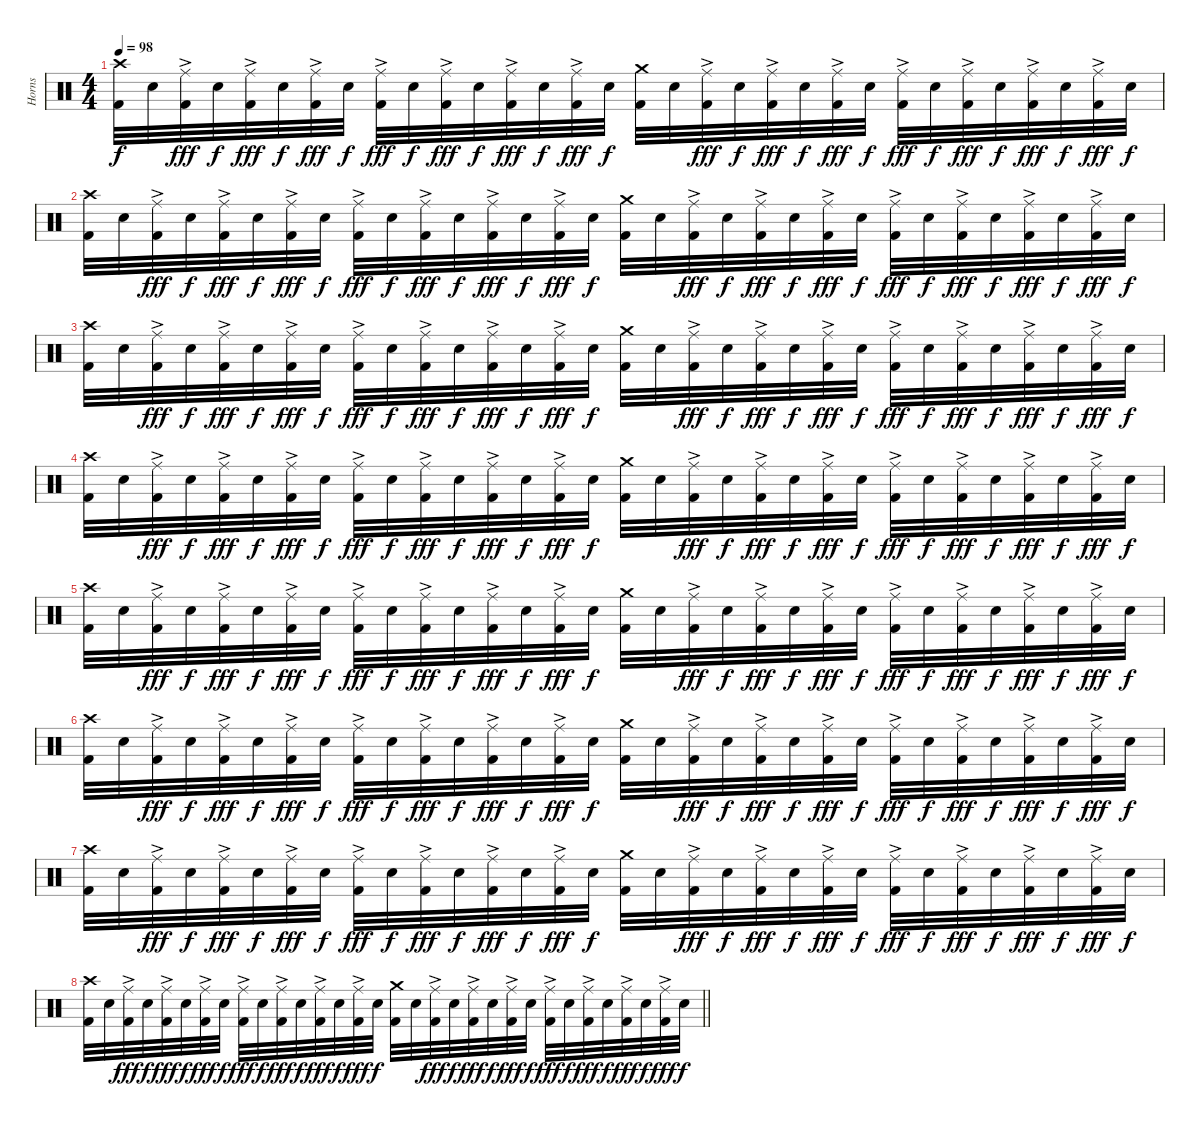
\track ("Horns" "Horns") {instrument percussion}
\staff {score}
\articulation defaults
\ts (4 4)
\tempo 98
\clef neutral
\ks c
("Crash high (hit)" "Kick (hit) 2").32{dy f} "Snare (hit) 2".32 ("Ride (middle)"{ac} "Kick (hit) 2").32{dy fff} "Snare (hit) 2".32{dy f} ("Ride (middle)"{ac} "Kick (hit) 2").32{dy fff} "Snare (hit) 2".32{dy f} ("Ride (middle)"{ac} "Kick (hit) 2").32{dy fff} "Snare (hit) 2".32{dy f} ("Ride (middle)"{ac} "Kick (hit) 2").32{dy fff} "Snare (hit) 2".32{dy f} ("Ride (middle)"{ac} "Kick (hit) 2").32{dy fff} "Snare (hit) 2".32{dy f} ("Ride (middle)"{ac} "Kick (hit) 2").32{dy fff} "Snare (hit) 2".32{dy f} ("Ride (middle)"{ac} "Kick (hit) 2").32{dy fff} "Snare (hit) 2".32{dy f} ("Crash medium (hit)" "Kick (hit) 2").32 "Snare (hit) 2".32 ("Ride (middle)"{ac} "Kick (hit) 2").32{dy fff} "Snare (hit) 2".32{dy f} ("Ride (middle)"{ac} "Kick (hit) 2").32{dy fff} "Snare (hit) 2".32{dy f} ("Ride (middle)"{ac} "Kick (hit) 2").32{dy fff} "Snare (hit) 2".32{dy f} ("Ride (middle)"{ac} "Kick (hit) 2").32{dy fff} "Snare (hit) 2".32{dy f} ("Ride (middle)"{ac} "Kick (hit) 2").32{dy fff} "Snare (hit) 2".32{dy f} ("Ride (middle)"{ac} "Kick (hit) 2").32{dy fff} "Snare (hit) 2".32{dy f} ("Ride (middle)"{ac} "Kick (hit) 2").32{dy fff} "Snare (hit) 2".32{dy f} |
("Crash high (hit)" "Kick (hit) 2").32 "Snare (hit) 2".32 ("Ride (middle)"{ac} "Kick (hit) 2").32{dy fff} "Snare (hit) 2".32{dy f} ("Ride (middle)"{ac} "Kick (hit) 2").32{dy fff} "Snare (hit) 2".32{dy f} ("Ride (middle)"{ac} "Kick (hit) 2").32{dy fff} "Snare (hit) 2".32{dy f} ("Ride (middle)"{ac} "Kick (hit) 2").32{dy fff} "Snare (hit) 2".32{dy f} ("Ride (middle)"{ac} "Kick (hit) 2").32{dy fff} "Snare (hit) 2".32{dy f} ("Ride (middle)"{ac} "Kick (hit) 2").32{dy fff} "Snare (hit) 2".32{dy f} ("Ride (middle)"{ac} "Kick (hit) 2").32{dy fff} "Snare (hit) 2".32{dy f} ("Crash medium (hit)" "Kick (hit) 2").32 "Snare (hit) 2".32 ("Ride (middle)"{ac} "Kick (hit) 2").32{dy fff} "Snare (hit) 2".32{dy f} ("Ride (middle)"{ac} "Kick (hit) 2").32{dy fff} "Snare (hit) 2".32{dy f} ("Ride (middle)"{ac} "Kick (hit) 2").32{dy fff} "Snare (hit) 2".32{dy f} ("Ride (middle)"{ac} "Kick (hit) 2").32{dy fff} "Snare (hit) 2".32{dy f} ("Ride (middle)"{ac} "Kick (hit) 2").32{dy fff} "Snare (hit) 2".32{dy f} ("Ride (middle)"{ac} "Kick (hit) 2").32{dy fff} "Snare (hit) 2".32{dy f} ("Ride (middle)"{ac} "Kick (hit) 2").32{dy fff} "Snare (hit) 2".32{dy f} |
("Crash high (hit)" "Kick (hit) 2").32 "Snare (hit) 2".32 ("Ride (middle)"{ac} "Kick (hit) 2").32{dy fff} "Snare (hit) 2".32{dy f} ("Ride (middle)"{ac} "Kick (hit) 2").32{dy fff} "Snare (hit) 2".32{dy f} ("Ride (middle)"{ac} "Kick (hit) 2").32{dy fff} "Snare (hit) 2".32{dy f} ("Ride (middle)"{ac} "Kick (hit) 2").32{dy fff} "Snare (hit) 2".32{dy f} ("Ride (middle)"{ac} "Kick (hit) 2").32{dy fff} "Snare (hit) 2".32{dy f} ("Ride (middle)"{ac} "Kick (hit) 2").32{dy fff} "Snare (hit) 2".32{dy f} ("Ride (middle)"{ac} "Kick (hit) 2").32{dy fff} "Snare (hit) 2".32{dy f} ("Crash medium (hit)" "Kick (hit) 2").32 "Snare (hit) 2".32 ("Ride (middle)"{ac} "Kick (hit) 2").32{dy fff} "Snare (hit) 2".32{dy f} ("Ride (middle)"{ac} "Kick (hit) 2").32{dy fff} "Snare (hit) 2".32{dy f} ("Ride (middle)"{ac} "Kick (hit) 2").32{dy fff} "Snare (hit) 2".32{dy f} ("Ride (middle)"{ac} "Kick (hit) 2").32{dy fff} "Snare (hit) 2".32{dy f} ("Ride (middle)"{ac} "Kick (hit) 2").32{dy fff} "Snare (hit) 2".32{dy f} ("Ride (middle)"{ac} "Kick (hit) 2").32{dy fff} "Snare (hit) 2".32{dy f} ("Ride (middle)"{ac} "Kick (hit) 2").32{dy fff} "Snare (hit) 2".32{dy f} |
("Crash high (hit)" "Kick (hit) 2").32 "Snare (hit) 2".32 ("Ride (middle)"{ac} "Kick (hit) 2").32{dy fff} "Snare (hit) 2".32{dy f} ("Ride (middle)"{ac} "Kick (hit) 2").32{dy fff} "Snare (hit) 2".32{dy f} ("Ride (middle)"{ac} "Kick (hit) 2").32{dy fff} "Snare (hit) 2".32{dy f} ("Ride (middle)"{ac} "Kick (hit) 2").32{dy fff} "Snare (hit) 2".32{dy f} ("Ride (middle)"{ac} "Kick (hit) 2").32{dy fff} "Snare (hit) 2".32{dy f} ("Ride (middle)"{ac} "Kick (hit) 2").32{dy fff} "Snare (hit) 2".32{dy f} ("Ride (middle)"{ac} "Kick (hit) 2").32{dy fff} "Snare (hit) 2".32{dy f} ("Crash medium (hit)" "Kick (hit) 2").32 "Snare (hit) 2".32 ("Ride (middle)"{ac} "Kick (hit) 2").32{dy fff} "Snare (hit) 2".32{dy f} ("Ride (middle)"{ac} "Kick (hit) 2").32{dy fff} "Snare (hit) 2".32{dy f} ("Ride (middle)"{ac} "Kick (hit) 2").32{dy fff} "Snare (hit) 2".32{dy f} ("Ride (middle)"{ac} "Kick (hit) 2").32{dy fff} "Snare (hit) 2".32{dy f} ("Ride (middle)"{ac} "Kick (hit) 2").32{dy fff} "Snare (hit) 2".32{dy f} ("Ride (middle)"{ac} "Kick (hit) 2").32{dy fff} "Snare (hit) 2".32{dy f} ("Ride (middle)"{ac} "Kick (hit) 2").32{dy fff} "Snare (hit) 2".32{dy f} |
("Crash high (hit)" "Kick (hit) 2").32 "Snare (hit) 2".32 ("Ride (middle)"{ac} "Kick (hit) 2").32{dy fff} "Snare (hit) 2".32{dy f} ("Ride (middle)"{ac} "Kick (hit) 2").32{dy fff} "Snare (hit) 2".32{dy f} ("Ride (middle)"{ac} "Kick (hit) 2").32{dy fff} "Snare (hit) 2".32{dy f} ("Ride (middle)"{ac} "Kick (hit) 2").32{dy fff} "Snare (hit) 2".32{dy f} ("Ride (middle)"{ac} "Kick (hit) 2").32{dy fff} "Snare (hit) 2".32{dy f} ("Ride (middle)"{ac} "Kick (hit) 2").32{dy fff} "Snare (hit) 2".32{dy f} ("Ride (middle)"{ac} "Kick (hit) 2").32{dy fff} "Snare (hit) 2".32{dy f} ("Crash medium (hit)" "Kick (hit) 2").32 "Snare (hit) 2".32 ("Ride (middle)"{ac} "Kick (hit) 2").32{dy fff} "Snare (hit) 2".32{dy f} ("Ride (middle)"{ac} "Kick (hit) 2").32{dy fff} "Snare (hit) 2".32{dy f} ("Ride (middle)"{ac} "Kick (hit) 2").32{dy fff} "Snare (hit) 2".32{dy f} ("Ride (middle)"{ac} "Kick (hit) 2").32{dy fff} "Snare (hit) 2".32{dy f} ("Ride (middle)"{ac} "Kick (hit) 2").32{dy fff} "Snare (hit) 2".32{dy f} ("Ride (middle)"{ac} "Kick (hit) 2").32{dy fff} "Snare (hit) 2".32{dy f} ("Ride (middle)"{ac} "Kick (hit) 2").32{dy fff} "Snare (hit) 2".32{dy f} |
("Crash high (hit)" "Kick (hit) 2").32 "Snare (hit) 2".32 ("Ride (middle)"{ac} "Kick (hit) 2").32{dy fff} "Snare (hit) 2".32{dy f} ("Ride (middle)"{ac} "Kick (hit) 2").32{dy fff} "Snare (hit) 2".32{dy f} ("Ride (middle)"{ac} "Kick (hit) 2").32{dy fff} "Snare (hit) 2".32{dy f} ("Ride (middle)"{ac} "Kick (hit) 2").32{dy fff} "Snare (hit) 2".32{dy f} ("Ride (middle)"{ac} "Kick (hit) 2").32{dy fff} "Snare (hit) 2".32{dy f} ("Ride (middle)"{ac} "Kick (hit) 2").32{dy fff} "Snare (hit) 2".32{dy f} ("Ride (middle)"{ac} "Kick (hit) 2").32{dy fff} "Snare (hit) 2".32{dy f} ("Crash medium (hit)" "Kick (hit) 2").32 "Snare (hit) 2".32 ("Ride (middle)"{ac} "Kick (hit) 2").32{dy fff} "Snare (hit) 2".32{dy f} ("Ride (middle)"{ac} "Kick (hit) 2").32{dy fff} "Snare (hit) 2".32{dy f} ("Ride (middle)"{ac} "Kick (hit) 2").32{dy fff} "Snare (hit) 2".32{dy f} ("Ride (middle)"{ac} "Kick (hit) 2").32{dy fff} "Snare (hit) 2".32{dy f} ("Ride (middle)"{ac} "Kick (hit) 2").32{dy fff} "Snare (hit) 2".32{dy f} ("Ride (middle)"{ac} "Kick (hit) 2").32{dy fff} "Snare (hit) 2".32{dy f} ("Ride (middle)"{ac} "Kick (hit) 2").32{dy fff} "Snare (hit) 2".32{dy f} |
("Crash high (hit)" "Kick (hit) 2").32 "Snare (hit) 2".32 ("Ride (middle)"{ac} "Kick (hit) 2").32{dy fff} "Snare (hit) 2".32{dy f} ("Ride (middle)"{ac} "Kick (hit) 2").32{dy fff} "Snare (hit) 2".32{dy f} ("Ride (middle)"{ac} "Kick (hit) 2").32{dy fff} "Snare (hit) 2".32{dy f} ("Ride (middle)"{ac} "Kick (hit) 2").32{dy fff} "Snare (hit) 2".32{dy f} ("Ride (middle)"{ac} "Kick (hit) 2").32{dy fff} "Snare (hit) 2".32{dy f} ("Ride (middle)"{ac} "Kick (hit) 2").32{dy fff} "Snare (hit) 2".32{dy f} ("Ride (middle)"{ac} "Kick (hit) 2").32{dy fff} "Snare (hit) 2".32{dy f} ("Crash medium (hit)" "Kick (hit) 2").32 "Snare (hit) 2".32 ("Ride (middle)"{ac} "Kick (hit) 2").32{dy fff} "Snare (hit) 2".32{dy f} ("Ride (middle)"{ac} "Kick (hit) 2").32{dy fff} "Snare (hit) 2".32{dy f} ("Ride (middle)"{ac} "Kick (hit) 2").32{dy fff} "Snare (hit) 2".32{dy f} ("Ride (middle)"{ac} "Kick (hit) 2").32{dy fff} "Snare (hit) 2".32{dy f} ("Ride (middle)"{ac} "Kick (hit) 2").32{dy fff} "Snare (hit) 2".32{dy f} ("Ride (middle)"{ac} "Kick (hit) 2").32{dy fff} "Snare (hit) 2".32{dy f} ("Ride (middle)"{ac} "Kick (hit) 2").32{dy fff} "Snare (hit) 2".32{dy f} |
\barLineRight lightlight
("Crash high (hit)" "Kick (hit) 2").32 "Snare (hit) 2".32 ("Ride (middle)"{ac} "Kick (hit) 2").32{dy fff} "Snare (hit) 2".32{dy f} ("Ride (middle)"{ac} "Kick (hit) 2").32{dy fff} "Snare (hit) 2".32{dy f} ("Ride (middle)"{ac} "Kick (hit) 2").32{dy fff} "Snare (hit) 2".32{dy f} ("Ride (middle)"{ac} "Kick (hit) 2").32{dy fff} "Snare (hit) 2".32{dy f} ("Ride (middle)"{ac} "Kick (hit) 2").32{dy fff} "Snare (hit) 2".32{dy f} ("Ride (middle)"{ac} "Kick (hit) 2").32{dy fff} "Snare (hit) 2".32{dy f} ("Ride (middle)"{ac} "Kick (hit) 2").32{dy fff} "Snare (hit) 2".32{dy f} ("Crash medium (hit)" "Kick (hit) 2").32 "Snare (hit) 2".32 ("Ride (middle)"{ac} "Kick (hit) 2").32{dy fff} "Snare (hit) 2".32{dy f} ("Ride (middle)"{ac} "Kick (hit) 2").32{dy fff} "Snare (hit) 2".32{dy f} ("Ride (middle)"{ac} "Kick (hit) 2").32{dy fff} "Snare (hit) 2".32{dy f} ("Ride (middle)"{ac} "Kick (hit) 2").32{dy fff} "Snare (hit) 2".32{dy f} ("Ride (middle)"{ac} "Kick (hit) 2").32{dy fff} "Snare (hit) 2".32{dy f} ("Ride (middle)"{ac} "Kick (hit) 2").32{dy fff} "Snare (hit) 2".32{dy f} ("Ride (middle)"{ac} "Kick (hit) 2").32{dy fff} "Snare (hit) 2".32{dy f}
